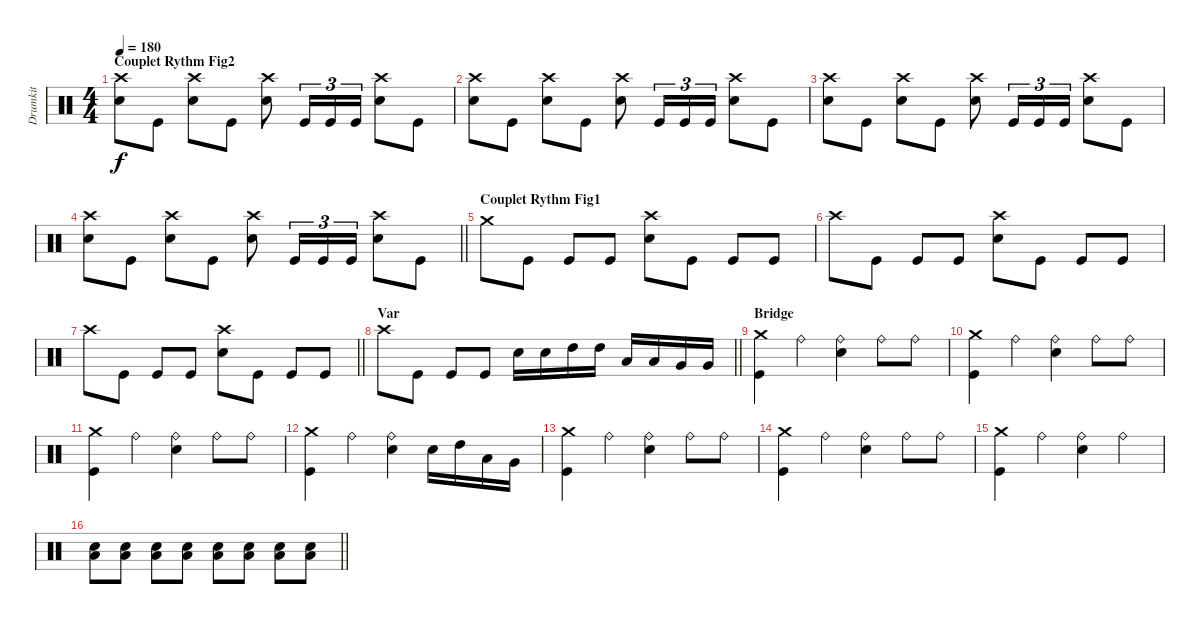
\track ("Drumkit" "Drumkit") {instrument percussion}
\staff {score}
\articulation defaults
\ts (4 4)
\section ("" "Couplet Rythm Fig2")
\tempo 180
\clef neutral
\ks c
("Crash high (hit)" "Snare (hit) 2").8{dy f} "Kick (hit)".8 ("Crash high (hit)" "Snare (hit) 2").8 "Kick (hit)".8 ("Crash high (hit)" "Snare (hit) 2").8 "Kick (hit)".16{tu (3 2)} "Kick (hit)".16{tu (3 2)} "Kick (hit)".16{tu (3 2)} ("Crash high (hit)" "Snare (hit) 2").8 "Kick (hit)".8 |
("Crash high (hit)" "Snare (hit) 2").8 "Kick (hit)".8 ("Crash high (hit)" "Snare (hit) 2").8 "Kick (hit)".8 ("Crash high (hit)" "Snare (hit) 2").8 "Kick (hit)".16{tu (3 2)} "Kick (hit)".16{tu (3 2)} "Kick (hit)".16{tu (3 2)} ("Crash high (hit)" "Snare (hit) 2").8 "Kick (hit)".8 |
("Crash high (hit)" "Snare (hit) 2").8 "Kick (hit)".8 ("Crash high (hit)" "Snare (hit) 2").8 "Kick (hit)".8 ("Crash high (hit)" "Snare (hit) 2").8 "Kick (hit)".16{tu (3 2)} "Kick (hit)".16{tu (3 2)} "Kick (hit)".16{tu (3 2)} ("Crash high (hit)" "Snare (hit) 2").8 "Kick (hit)".8 |
\barLineRight lightlight
("Crash high (hit)" "Snare (hit) 2").8 "Kick (hit)".8 ("Crash high (hit)" "Snare (hit) 2").8 "Kick (hit)".8 ("Crash high (hit)" "Snare (hit) 2").8 "Kick (hit)".16{tu (3 2)} "Kick (hit)".16{tu (3 2)} "Kick (hit)".16{tu (3 2)} ("Crash high (hit)" "Snare (hit) 2").8 "Kick (hit)".8 |
\section ("" "Couplet Rythm Fig1")
"Crash medium (hit)".8 "Kick (hit)".8 "Kick (hit)".8 "Kick (hit)".8 ("Crash high (hit)" "Snare (hit) 2").8 "Kick (hit)".8 "Kick (hit)".8 "Kick (hit)".8 |
"Crash high (hit)".8 "Kick (hit)".8 "Kick (hit)".8 "Kick (hit)".8 ("Crash high (hit)" "Snare (hit) 2").8 "Kick (hit)".8 "Kick (hit)".8 "Kick (hit)".8 |
\barLineRight lightlight "Crash high (hit)".8 "Kick (hit)".8 "Kick (hit)".8 "Kick (hit)".8
("Crash high (hit)" "Snare (hit) 2").8 "Kick (hit)".8 "Kick (hit)".8 "Kick (hit)".8 |
\section ("" "Var")
\barLineRight lightlight "Crash high (hit)".8 "Kick (hit)".8 "Kick (hit)".8 "Kick (hit)".8 "Snare (hit) 2".16 "Snare (hit) 2".16 "High Tom (hit)".16 "High Tom (hit)".16 "Low Tom (hit)".16 "Low Tom (hit)".16 "Very Low Tom (hit)".16 "Very Low Tom (hit)".16
|
\section ("" "Bridge")
("Crash medium (hit)" "Kick (hit)").4 "Ride (bell)".4 ("Ride (bell)" "Snare (hit) 2").4 "Ride (bell)".8 "Ride (bell)".8 |
("Crash medium (hit)" "Kick (hit)").4 "Ride (bell)".4 ("Ride (bell)" "Snare (hit) 2").4 "Ride (bell)".8 "Ride (bell)".8 |
("Crash medium (hit)" "Kick (hit)").4 "Ride (bell)".4 ("Ride (bell)" "Snare (hit) 2").4 "Ride (bell)".8 "Ride (bell)".8 |
("Crash medium (hit)" "Kick (hit)").4 "Ride (bell)".4 ("Ride (bell)" "Snare (hit) 2").4 "Snare (hit) 2".16 "High Tom (hit)".16 "Low Tom (hit)".16 "Very Low Tom (hit)".16 |
("Crash medium (hit)" "Kick (hit)").4 "Ride (bell)".4 ("Ride (bell)" "Snare (hit) 2").4 "Ride (bell)".8 "Ride (bell)".8 |
("Crash medium (hit)" "Kick (hit)").4 "Ride (bell)".4 ("Ride (bell)" "Snare (hit) 2").4 "Ride (bell)".8 "Ride (bell)".8 |
("Crash medium (hit)" "Kick (hit)").4 "Ride (bell)".4 ("Ride (bell)" "Snare (hit) 2").4 "Ride (bell)".4 |
\barLineRight lightlight
("Snare (hit) 2" "Low Floor Tom (hit)").8 ("Snare (hit) 2" "Low Floor Tom (hit)").8 ("Snare (hit) 2" "Low Floor Tom (hit)").8 ("Snare (hit) 2" "Low Floor Tom (hit)").8 ("Snare (hit) 2" "Low Floor Tom (hit)").8 ("Snare (hit) 2" "Low Floor Tom (hit)").8 ("Snare (hit) 2" "Low Floor Tom (hit)").8 ("Snare (hit) 2" "Low Floor Tom (hit)").8
